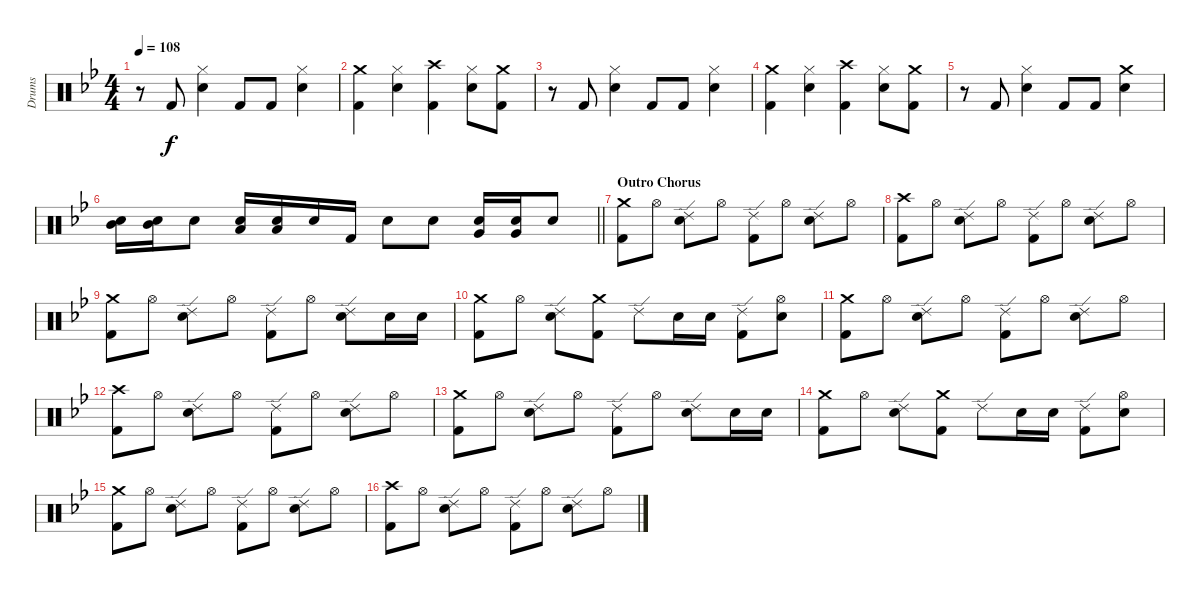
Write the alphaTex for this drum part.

\track ("Drums" "Drums") {instrument percussion}
\staff {score}
\articulation defaults
\ts (4 4)
\tempo 108
\clef neutral
\ks gminor
r.8{dy f} "Kick (hit) 2".8 ("Hi-Hat (closed)" "Snare (hit) 2").4 "Kick (hit) 2".8 "Kick (hit) 2".8 ("Hi-Hat (closed)" "Snare (hit) 2").4 |
("Crash medium (hit)" "Kick (hit) 2").4 ("Hi-Hat (closed)" "Snare (hit) 2").4 ("Crash high (hit)" "Kick (hit) 2").4 ("Hi-Hat (closed)" "Snare (hit) 2").8 ("Crash medium (hit)" "Kick (hit) 2").8 |
r.8 "Kick (hit) 2".8 ("Hi-Hat (closed)" "Snare (hit) 2").4 "Kick (hit) 2".8 "Kick (hit) 2".8 ("Hi-Hat (closed)" "Snare (hit) 2").4 |
("Crash medium (hit)" "Kick (hit) 2").4 ("Hi-Hat (closed)" "Snare (hit) 2").4 ("Crash high (hit)" "Kick (hit) 2").4 ("Hi-Hat (closed)" "Snare (hit) 2").8 ("Crash medium (hit)" "Kick (hit) 2").8 |
r.8 "Kick (hit) 2".8 ("Hi-Hat (closed)" "Snare (hit) 2").4 "Kick (hit) 2".8 "Kick (hit) 2".8 ("Crash medium (hit)" "Snare (hit) 2").4 |
\barLineRight lightlight
("Snare (hit) 2" "Mid Tom (hit)").16 ("Snare (hit) 2" "Mid Tom (hit)").16 "Snare (hit) 2".8 ("Snare (hit) 2" "Low Tom (hit)").16 ("Snare (hit) 2" "Low Tom (hit)").16 "Snare (hit) 2".16 "Kick (hit) 2".16 "Snare (hit) 2".8 "Snare (hit) 2".8 ("Snare (hit) 2" "Very Low Tom (hit)").16 ("Snare (hit) 2" "Very Low Tom (hit)").16 "Snare (hit) 2".8 |
\section ("" "Outro Chorus")
("Crash medium (hit)" "Kick (hit) 2").8 "Hi-Hat (open)".8 ("Ride (edge) 2" "Snare (hit) 2").8 "Hi-Hat (open)".8 ("Ride (edge) 2" "Kick (hit) 2").8 "Hi-Hat (open)".8 ("Ride (edge) 2" "Snare (hit) 2").8 "Hi-Hat (open)".8 |
("Crash high (hit)" "Kick (hit) 2").8 "Hi-Hat (open)".8 ("Ride (edge) 2" "Snare (hit) 2").8 "Hi-Hat (open)".8 ("Ride (edge) 2" "Kick (hit) 2").8 "Hi-Hat (open)".8 ("Ride (edge) 2" "Snare (hit) 2").8 "Hi-Hat (open)".8 |
("Crash medium (hit)" "Kick (hit) 2").8 "Hi-Hat (open)".8 ("Ride (edge) 2" "Snare (hit) 2").8 "Hi-Hat (open)".8 ("Ride (edge) 2" "Kick (hit) 2").8 "Hi-Hat (open)".8 ("Ride (edge) 2" "Snare (hit) 2").8 "Snare (hit) 2".16 "Snare (hit) 2".16 |
("Crash medium (hit)" "Kick (hit) 2").8 "Hi-Hat (open)".8 ("Ride (edge) 2" "Snare (hit) 2").8 ("Crash medium (hit)" "Kick (hit) 2").8 "Ride (edge) 2".8 "Snare (hit) 2".16 "Snare (hit) 2".16 ("Ride (edge) 2" "Kick (hit) 2").8 ("Hi-Hat (open)" "Snare (hit) 2").8 |
("Crash medium (hit)" "Kick (hit) 2").8 "Hi-Hat (open)".8 ("Ride (edge) 2" "Snare (hit) 2").8 "Hi-Hat (open)".8 ("Ride (edge) 2" "Kick (hit) 2").8 "Hi-Hat (open)".8 ("Ride (edge) 2" "Snare (hit) 2").8 "Hi-Hat (open)".8 |
("Crash high (hit)" "Kick (hit) 2").8 "Hi-Hat (open)".8 ("Ride (edge) 2" "Snare (hit) 2").8 "Hi-Hat (open)".8 ("Ride (edge) 2" "Kick (hit) 2").8 "Hi-Hat (open)".8 ("Ride (edge) 2" "Snare (hit) 2").8 "Hi-Hat (open)".8 |
("Crash medium (hit)" "Kick (hit) 2").8 "Hi-Hat (open)".8 ("Ride (edge) 2" "Snare (hit) 2").8 "Hi-Hat (open)".8 ("Ride (edge) 2" "Kick (hit) 2").8 "Hi-Hat (open)".8 ("Ride (edge) 2" "Snare (hit) 2").8 "Snare (hit) 2".16 "Snare (hit) 2".16 |
("Crash medium (hit)" "Kick (hit) 2").8 "Hi-Hat (open)".8 ("Ride (edge) 2" "Snare (hit) 2").8 ("Crash medium (hit)" "Kick (hit) 2").8 "Ride (edge) 2".8 "Snare (hit) 2".16 "Snare (hit) 2".16 ("Ride (edge) 2" "Kick (hit) 2").8 ("Hi-Hat (open)" "Snare (hit) 2").8 |
("Crash medium (hit)" "Kick (hit) 2").8 "Hi-Hat (open)".8 ("Ride (edge) 2" "Snare (hit) 2").8 "Hi-Hat (open)".8 ("Ride (edge) 2" "Kick (hit) 2").8 "Hi-Hat (open)".8 ("Ride (edge) 2" "Snare (hit) 2").8 "Hi-Hat (open)".8 |
("Crash high (hit)" "Kick (hit) 2").8 "Hi-Hat (open)".8 ("Ride (edge) 2" "Snare (hit) 2").8 "Hi-Hat (open)".8 ("Ride (edge) 2" "Kick (hit) 2").8 "Hi-Hat (open)".8 ("Ride (edge) 2" "Snare (hit) 2").8 "Hi-Hat (open)".8
